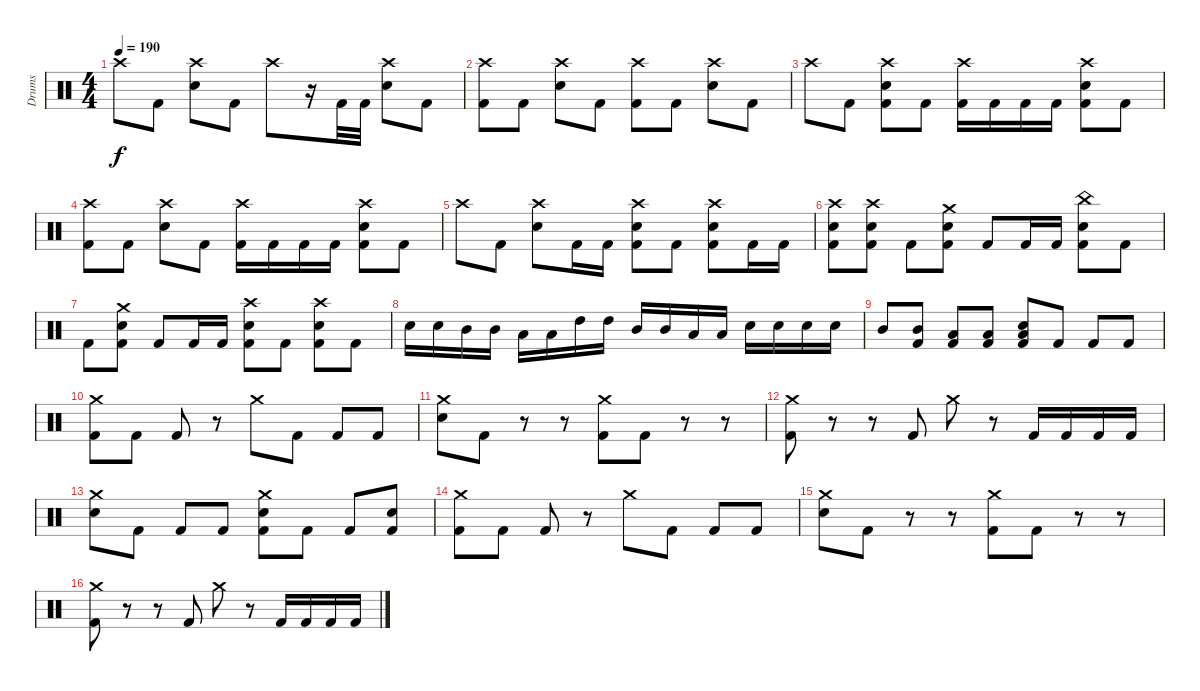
\track ("Drums" "Drums") {instrument percussion}
\staff {score}
\articulation defaults
\ts (4 4)
\tempo 190
\clef neutral
\ks c "Crash high (hit)".8{dy f} "Kick (hit) 2".8
("Crash high (hit)" "Electric Snare (hit)").8 "Kick (hit) 2".8 "Crash high (hit)".8 r.16 "Kick (hit) 2".32 "Kick (hit) 2".32 ("Crash high (hit)" "Electric Snare (hit)").8 "Kick (hit) 2".8 |
("Crash high (hit)" "Kick (hit) 2").8 "Kick (hit) 2".8 ("Crash high (hit)" "Electric Snare (hit)").8 "Kick (hit) 2".8 ("Crash high (hit)" "Kick (hit) 2").8 "Kick (hit) 2".8 ("Crash high (hit)" "Electric Snare (hit)").8 "Kick (hit) 2".8 |
"Crash high (hit)".8 "Kick (hit) 2".8 ("Crash high (hit)" "Electric Snare (hit)" "Kick (hit) 2").8 "Kick (hit) 2".8 ("Crash high (hit)" "Kick (hit) 2").16 "Kick (hit) 2".16 "Kick (hit) 2".16 "Kick (hit) 2".16 ("Crash high (hit)" "Electric Snare (hit)" "Kick (hit) 2").8 "Kick (hit) 2".8 |
("Crash high (hit)" "Kick (hit) 2").8 "Kick (hit) 2".8 ("Crash high (hit)" "Electric Snare (hit)").8 "Kick (hit) 2".8 ("Crash high (hit)" "Kick (hit) 2").16 "Kick (hit) 2".16 "Kick (hit) 2".16 "Kick (hit) 2".16 ("Crash high (hit)" "Electric Snare (hit)" "Kick (hit) 2").8 "Kick (hit) 2".8 |
"Crash high (hit)".8 "Kick (hit) 2".8 ("Crash high (hit)" "Electric Snare (hit)").8 "Kick (hit) 2".16 "Kick (hit) 2".16 ("Crash high (hit)" "Electric Snare (hit)" "Kick (hit) 2").8 "Kick (hit) 2".8 ("Crash high (hit)" "Electric Snare (hit)" "Kick (hit) 2").8 "Kick (hit) 2".16 "Kick (hit) 2".16 |
("Crash high (hit)" "Electric Snare (hit)" "Kick (hit) 2").8 ("Crash high (hit)" "Electric Snare (hit)" "Kick (hit) 2").8 "Kick (hit) 2".8 ("Crash medium (hit)" "Electric Snare (hit)" "Kick (hit) 2").8 "Kick (hit) 2".8 "Kick (hit) 2".16 "Kick (hit) 2".16 ("China (hit)" "Electric Snare (hit)" "Kick (hit) 2").8 "Kick (hit) 2".8 |
"Kick (hit) 2".8 ("Crash medium (hit)" "Electric Snare (hit)" "Kick (hit) 2").8 "Kick (hit) 2".8 "Kick (hit) 2".16 "Kick (hit) 2".16 ("Crash high (hit)" "Electric Snare (hit)" "Kick (hit) 2").8 "Kick (hit) 2".8 ("Crash high (hit)" "Electric Snare (hit)" "Kick (hit) 2").8 "Kick (hit) 2".8 |
"Electric Snare (hit)".16 "Electric Snare (hit)".16 "Mid Tom (hit)".16 "Mid Tom (hit)".16 "Low Tom (hit)".16 "Low Tom (hit)".16 "High Tom (hit)".16 "High Tom (hit)".16 "Mid Tom (hit)".16 "Mid Tom (hit)".16 "Low Tom (hit)".16 "Low Tom (hit)".16 "Electric Snare (hit)".16 "Electric Snare (hit)".16 "Electric Snare (hit)".16 "Electric Snare (hit)".16 |
"Mid Tom (hit)".8 ("Mid Tom (hit)" "Kick (hit) 2").8 ("Low Tom (hit)" "Kick (hit) 2").8 ("Low Tom (hit)" "Kick (hit) 2").8 ("Low Tom (hit)" "Electric Snare (hit)" "Kick (hit) 2").8 "Kick (hit) 2".8 "Kick (hit) 2".8 "Kick (hit) 2".8 |
("Crash medium (hit)" "Kick (hit) 2").8 "Kick (hit) 2".8 "Kick (hit) 2".8 r.8 "Crash medium (hit)".8 "Kick (hit) 2".8 "Kick (hit) 2".8 "Kick (hit) 2".8 |
("Crash medium (hit)" "Electric Snare (hit)").8 "Kick (hit) 2".8 r.8 r.8 ("Crash medium (hit)" "Kick (hit) 2").8 "Kick (hit) 2".8 r.8 r.8 |
("Crash medium (hit)" "Kick (hit) 2").8 r.8 r.8 "Kick (hit) 2".8 "Crash medium (hit)".8 r.8 "Kick (hit) 2".16 "Kick (hit) 2".16 "Kick (hit) 2".16 "Kick (hit) 2".16 |
("Crash medium (hit)" "Electric Snare (hit)").8 "Kick (hit) 2".8 "Kick (hit) 2".8 "Kick (hit) 2".8 ("Crash medium (hit)" "Electric Snare (hit)" "Kick (hit) 2").8 "Kick (hit) 2".8 "Kick (hit) 2".8 ("Electric Snare (hit)" "Kick (hit) 2").8 |
("Crash medium (hit)" "Kick (hit) 2").8 "Kick (hit) 2".8 "Kick (hit) 2".8 r.8 "Crash medium (hit)".8 "Kick (hit) 2".8 "Kick (hit) 2".8 "Kick (hit) 2".8 |
("Crash medium (hit)" "Electric Snare (hit)").8 "Kick (hit) 2".8 r.8 r.8 ("Crash medium (hit)" "Kick (hit) 2").8 "Kick (hit) 2".8 r.8 r.8 |
("Crash medium (hit)" "Kick (hit) 2").8 r.8 r.8 "Kick (hit) 2".8 "Crash medium (hit)".8 r.8 "Kick (hit) 2".16 "Kick (hit) 2".16 "Kick (hit) 2".16 "Kick (hit) 2".16
